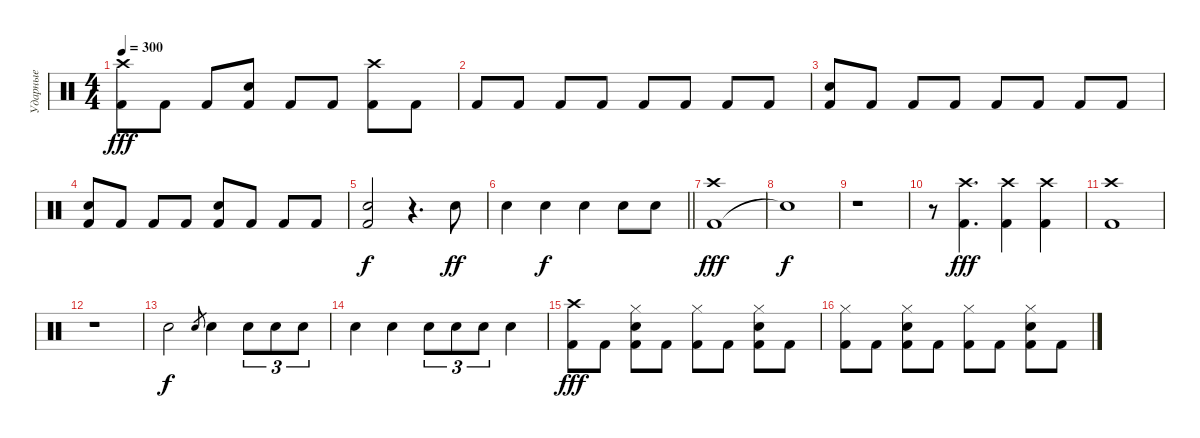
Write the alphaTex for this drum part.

\track ("Ударные" "Ударные") {instrument percussion}
\staff {score}
\articulation defaults
\ts (4 4)
\tempo 300
\clef neutral
\ks c
("Kick (hit) 2" "Crash high (hit)").8{dy fff} "Kick (hit) 2".8 "Kick (hit) 2".8 ("Kick (hit) 2" "Snare (hit) 2").8 "Kick (hit) 2".8 "Kick (hit) 2".8 ("Kick (hit) 2" "Crash high (hit)").8 "Kick (hit) 2".8 |
"Kick (hit) 2".8 "Kick (hit) 2".8 "Kick (hit) 2".8 "Kick (hit) 2".8 "Kick (hit) 2".8 "Kick (hit) 2".8 "Kick (hit) 2".8 "Kick (hit) 2".8 |
("Kick (hit) 2" "Snare (hit) 2").8 "Kick (hit) 2".8 "Kick (hit) 2".8 "Kick (hit) 2".8 "Kick (hit) 2".8 "Kick (hit) 2".8 "Kick (hit) 2".8 "Kick (hit) 2".8 |
("Kick (hit) 2" "Snare (hit) 2").8 "Kick (hit) 2".8 "Kick (hit) 2".8 "Kick (hit) 2".8 ("Kick (hit) 2" "Snare (hit) 2").8 "Kick (hit) 2".8 "Kick (hit) 2".8 "Kick (hit) 2".8 |
("Kick (hit) 2" "Snare (hit) 2").2{dy f} r.4{d} "Electric Snare (hit)".8{dy ff} |
\barLineRight lightlight "Electric Snare (hit)".4 "Snare (hit) 2".4{dy f} "Snare (hit) 2".4 "Snare (hit) 2".8 "Snare (hit) 2".8
|
("Kick (hit) 2" "Crash high (hit)").1{dy fff} |
"Snare (hit)"{t}.1{dy f} |
r.1 |
r.8 ("Kick (hit) 2" "Crash high (hit)").4{d dy fff} ("Kick (hit) 2" "Crash high (hit)").4 ("Kick (hit) 2" "Crash high (hit)").4 |
("Kick (hit) 2" "Crash high (hit)").1 |
r.1 |
"Snare (hit) 2".2{dy f} "Snare (hit) 2".8{gr} "Snare (hit) 2".4 "Snare (hit) 2".8{tu (3 2)} "Snare (hit) 2".8{tu (3 2)} "Snare (hit) 2".8{tu (3 2)} |
"Snare (hit) 2".4 "Snare (hit) 2".4 "Snare (hit) 2".8{tu (3 2)} "Snare (hit) 2".8{tu (3 2)} "Snare (hit) 2".8{tu (3 2)} "Snare (hit) 2".4 |
("Kick (hit) 2" "Crash high (hit)").8{dy fff} "Kick (hit) 2".8 ("Kick (hit) 2" "Snare (hit) 2" "Hi-Hat (closed)").8 "Kick (hit) 2".8 ("Kick (hit) 2" "Hi-Hat (closed)").8 "Kick (hit) 2".8 ("Kick (hit) 2" "Snare (hit) 2" "Hi-Hat (closed)").8 "Kick (hit) 2".8 |
("Kick (hit) 2" "Hi-Hat (closed)").8 "Kick (hit) 2".8 ("Kick (hit) 2" "Snare (hit) 2" "Hi-Hat (closed)").8 "Kick (hit) 2".8 ("Kick (hit) 2" "Hi-Hat (closed)").8 "Kick (hit) 2".8 ("Kick (hit) 2" "Snare (hit) 2" "Hi-Hat (closed)").8 "Kick (hit) 2".8
